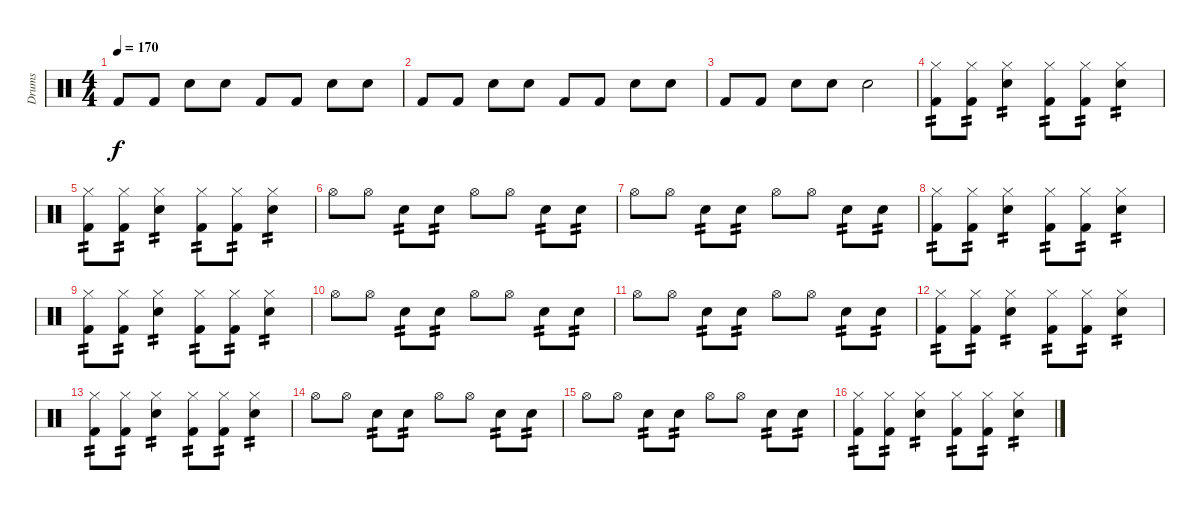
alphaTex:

\track ("Drums" "Drums") {instrument percussion}
\staff {score}
\articulation defaults
\ts (4 4)
\tempo 170
\clef neutral
\ks c "Kick (hit) 2".8{dy f} "Kick (hit) 2".8 "Snare (hit) 2".8 "Snare (hit) 2".8 "Kick (hit) 2".8 "Kick (hit) 2".8 "Snare (hit) 2".8 "Snare (hit) 2".8
|
"Kick (hit) 2".8 "Kick (hit) 2".8 "Snare (hit) 2".8 "Snare (hit) 2".8 "Kick (hit) 2".8 "Kick (hit) 2".8 "Snare (hit) 2".8 "Snare (hit) 2".8 |
"Kick (hit) 2".8 "Kick (hit) 2".8 "Snare (hit) 2".8 "Snare (hit) 2".8 "Snare (hit) 2".2 |
("Kick (hit) 2" "Hi-Hat (closed)").8{tp 2} ("Kick (hit) 2" "Hi-Hat (closed)").8{tp 2} ("Snare (hit) 2" "Hi-Hat (closed)").4{tp 2} ("Kick (hit) 2" "Hi-Hat (closed)").8{tp 2} ("Kick (hit) 2" "Hi-Hat (closed)").8{tp 2} ("Snare (hit) 2" "Hi-Hat (closed)").4{tp 2} |
("Kick (hit) 2" "Hi-Hat (closed)").8{tp 2} ("Kick (hit) 2" "Hi-Hat (closed)").8{tp 2} ("Snare (hit) 2" "Hi-Hat (closed)").4{tp 2} ("Kick (hit) 2" "Hi-Hat (closed)").8{tp 2} ("Kick (hit) 2" "Hi-Hat (closed)").8{tp 2} ("Snare (hit) 2" "Hi-Hat (closed)").4{tp 2} |
"Hi-Hat (open)".8 "Hi-Hat (open)".8 "Snare (hit) 2".8{tp 2} "Snare (hit) 2".8{tp 2} "Hi-Hat (open)".8 "Hi-Hat (open)".8 "Snare (hit) 2".8{tp 2} "Snare (hit) 2".8{tp 2} |
"Hi-Hat (open)".8 "Hi-Hat (open)".8 "Snare (hit) 2".8{tp 2} "Snare (hit) 2".8{tp 2} "Hi-Hat (open)".8 "Hi-Hat (open)".8 "Snare (hit) 2".8{tp 2} "Snare (hit) 2".8{tp 2} |
("Kick (hit) 2" "Hi-Hat (closed)").8{tp 2} ("Kick (hit) 2" "Hi-Hat (closed)").8{tp 2} ("Snare (hit) 2" "Hi-Hat (closed)").4{tp 2} ("Kick (hit) 2" "Hi-Hat (closed)").8{tp 2} ("Kick (hit) 2" "Hi-Hat (closed)").8{tp 2} ("Snare (hit) 2" "Hi-Hat (closed)").4{tp 2} |
("Kick (hit) 2" "Hi-Hat (closed)").8{tp 2} ("Kick (hit) 2" "Hi-Hat (closed)").8{tp 2} ("Snare (hit) 2" "Hi-Hat (closed)").4{tp 2} ("Kick (hit) 2" "Hi-Hat (closed)").8{tp 2} ("Kick (hit) 2" "Hi-Hat (closed)").8{tp 2} ("Snare (hit) 2" "Hi-Hat (closed)").4{tp 2} |
"Hi-Hat (open)".8 "Hi-Hat (open)".8 "Snare (hit) 2".8{tp 2} "Snare (hit) 2".8{tp 2} "Hi-Hat (open)".8 "Hi-Hat (open)".8 "Snare (hit) 2".8{tp 2} "Snare (hit) 2".8{tp 2} |
"Hi-Hat (open)".8 "Hi-Hat (open)".8 "Snare (hit) 2".8{tp 2} "Snare (hit) 2".8{tp 2} "Hi-Hat (open)".8 "Hi-Hat (open)".8 "Snare (hit) 2".8{tp 2} "Snare (hit) 2".8{tp 2} |
("Kick (hit) 2" "Hi-Hat (closed)").8{tp 2} ("Kick (hit) 2" "Hi-Hat (closed)").8{tp 2} ("Snare (hit) 2" "Hi-Hat (closed)").4{tp 2} ("Kick (hit) 2" "Hi-Hat (closed)").8{tp 2} ("Kick (hit) 2" "Hi-Hat (closed)").8{tp 2} ("Snare (hit) 2" "Hi-Hat (closed)").4{tp 2} |
("Kick (hit) 2" "Hi-Hat (closed)").8{tp 2} ("Kick (hit) 2" "Hi-Hat (closed)").8{tp 2} ("Snare (hit) 2" "Hi-Hat (closed)").4{tp 2} ("Kick (hit) 2" "Hi-Hat (closed)").8{tp 2} ("Kick (hit) 2" "Hi-Hat (closed)").8{tp 2} ("Snare (hit) 2" "Hi-Hat (closed)").4{tp 2} |
"Hi-Hat (open)".8 "Hi-Hat (open)".8 "Snare (hit) 2".8{tp 2} "Snare (hit) 2".8{tp 2} "Hi-Hat (open)".8 "Hi-Hat (open)".8 "Snare (hit) 2".8{tp 2} "Snare (hit) 2".8{tp 2} |
"Hi-Hat (open)".8 "Hi-Hat (open)".8 "Snare (hit) 2".8{tp 2} "Snare (hit) 2".8{tp 2} "Hi-Hat (open)".8 "Hi-Hat (open)".8 "Snare (hit) 2".8{tp 2} "Snare (hit) 2".8{tp 2} |
("Kick (hit) 2" "Hi-Hat (closed)").8{tp 2} ("Kick (hit) 2" "Hi-Hat (closed)").8{tp 2} ("Snare (hit) 2" "Hi-Hat (closed)").4{tp 2} ("Kick (hit) 2" "Hi-Hat (closed)").8{tp 2} ("Kick (hit) 2" "Hi-Hat (closed)").8{tp 2} ("Snare (hit) 2" "Hi-Hat (closed)").4{tp 2}
